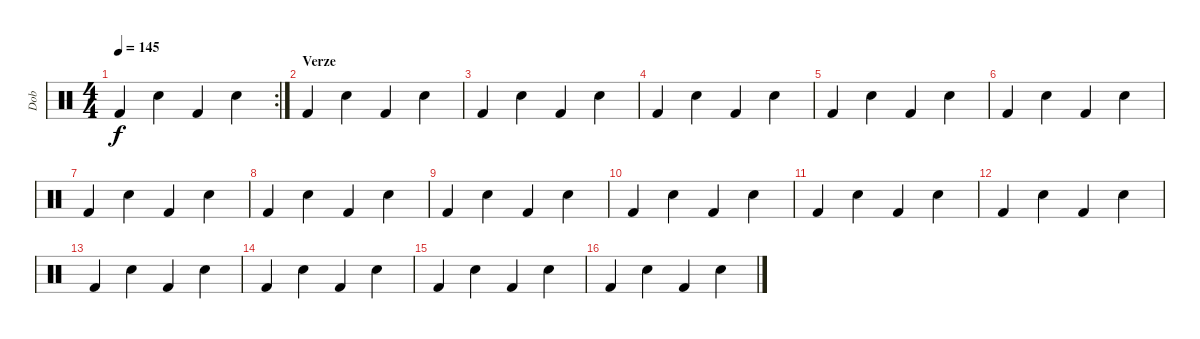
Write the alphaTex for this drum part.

\track ("Dob" "Dob") {instrument percussion}
\staff {score}
\articulation defaults
\rc 2
\ts (4 4)
\tempo 145
\clef neutral
\ks c "Kick (hit) 2".4{dy f} "Electric Snare (hit)".4 "Kick (hit) 2".4 "Electric Snare (hit)".4
|
\section ("" "Verze")
"Kick (hit) 2".4 "Electric Snare (hit)".4 "Kick (hit) 2".4 "Electric Snare (hit)".4 |
"Kick (hit) 2".4 "Electric Snare (hit)".4 "Kick (hit) 2".4 "Electric Snare (hit)".4 |
"Kick (hit) 2".4 "Electric Snare (hit)".4 "Kick (hit) 2".4 "Electric Snare (hit)".4 |
"Kick (hit) 2".4 "Electric Snare (hit)".4 "Kick (hit) 2".4 "Electric Snare (hit)".4 |
"Kick (hit) 2".4 "Electric Snare (hit)".4 "Kick (hit) 2".4 "Electric Snare (hit)".4 |
"Kick (hit) 2".4 "Electric Snare (hit)".4 "Kick (hit) 2".4 "Electric Snare (hit)".4 |
"Kick (hit) 2".4 "Electric Snare (hit)".4 "Kick (hit) 2".4 "Electric Snare (hit)".4 |
"Kick (hit) 2".4 "Electric Snare (hit)".4 "Kick (hit) 2".4 "Electric Snare (hit)".4 |
"Kick (hit) 2".4 "Electric Snare (hit)".4 "Kick (hit) 2".4 "Electric Snare (hit)".4 |
"Kick (hit) 2".4 "Electric Snare (hit)".4 "Kick (hit) 2".4 "Electric Snare (hit)".4 |
"Kick (hit) 2".4 "Electric Snare (hit)".4 "Kick (hit) 2".4 "Electric Snare (hit)".4 |
"Kick (hit) 2".4 "Electric Snare (hit)".4 "Kick (hit) 2".4 "Electric Snare (hit)".4 |
"Kick (hit) 2".4 "Electric Snare (hit)".4 "Kick (hit) 2".4 "Electric Snare (hit)".4 |
"Kick (hit) 2".4 "Electric Snare (hit)".4 "Kick (hit) 2".4 "Electric Snare (hit)".4 |
"Kick (hit) 2".4 "Electric Snare (hit)".4 "Kick (hit) 2".4 "Electric Snare (hit)".4
